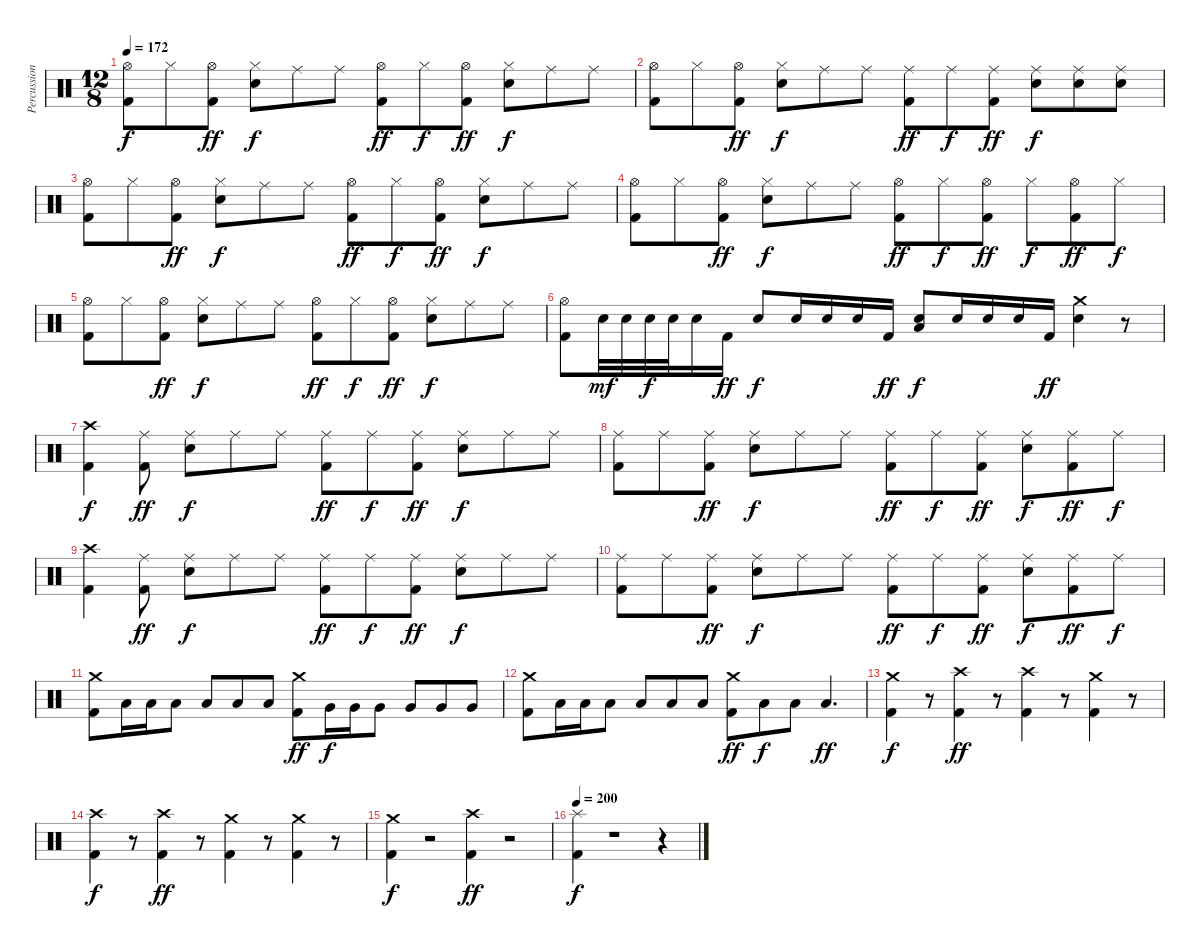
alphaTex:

\track ("Percussion" "Percussion") {instrument percussion}
\staff {score}
\articulation defaults
\ts (12 8)
\tempo 172
\clef neutral
\ks c
("Kick (hit) 2" "Hi-Hat (open)").8{dy f} "Hi-Hat (closed)".8 ("Kick (hit) 2" "Hi-Hat (open)").8{dy ff} ("Snare (hit) 2" "Hi-Hat (closed)").8{dy f} "Ride (middle)".8 "Ride (middle)".8 ("Kick (hit) 2" "Hi-Hat (open)").8{dy ff} "Hi-Hat (closed)".8{dy f} ("Kick (hit) 2" "Hi-Hat (open)").8{dy ff} ("Snare (hit) 2" "Hi-Hat (closed)").8{dy f} "Ride (middle)".8 "Ride (middle)".8 |
("Kick (hit) 2" "Hi-Hat (open)").8 "Hi-Hat (closed)".8 ("Kick (hit) 2" "Hi-Hat (open)").8{dy ff} ("Snare (hit) 2" "Hi-Hat (closed)").8{dy f} "Ride (middle)".8 "Ride (middle)".8 ("Kick (hit) 2" "Ride (middle)").8{dy ff} "Ride (middle)".8{dy f} ("Kick (hit) 2" "Ride (middle)").8{dy ff} ("Snare (hit) 2" "Ride (middle)").8{dy f} ("Snare (hit) 2" "Ride (middle)").8 ("Snare (hit) 2" "Ride (middle)").8 |
("Kick (hit) 2" "Hi-Hat (open)").8 "Hi-Hat (closed)".8 ("Kick (hit) 2" "Hi-Hat (open)").8{dy ff} ("Snare (hit) 2" "Hi-Hat (closed)").8{dy f} "Ride (middle)".8 "Ride (middle)".8 ("Kick (hit) 2" "Hi-Hat (open)").8{dy ff} "Hi-Hat (closed)".8{dy f} ("Kick (hit) 2" "Hi-Hat (open)").8{dy ff} ("Snare (hit) 2" "Hi-Hat (closed)").8{dy f} "Ride (middle)".8 "Ride (middle)".8 |
("Kick (hit) 2" "Hi-Hat (open)").8 "Hi-Hat (closed)".8 ("Kick (hit) 2" "Hi-Hat (open)").8{dy ff} ("Snare (hit) 2" "Hi-Hat (closed)").8{dy f} "Ride (middle)".8 "Ride (middle)".8 ("Kick (hit) 2" "Hi-Hat (open)").8{dy ff} "Hi-Hat (closed)".8{dy f} ("Kick (hit) 2" "Hi-Hat (open)").8{dy ff} "Hi-Hat (closed)".8{dy f} ("Kick (hit) 2" "Hi-Hat (open)").8{dy ff} "Hi-Hat (closed)".8{dy f} |
("Kick (hit) 2" "Hi-Hat (open)").8 "Hi-Hat (closed)".8 ("Kick (hit) 2" "Hi-Hat (open)").8{dy ff} ("Snare (hit) 2" "Hi-Hat (closed)").8{dy f} "Ride (middle)".8 "Ride (middle)".8 ("Kick (hit) 2" "Hi-Hat (open)").8{dy ff} "Hi-Hat (closed)".8{dy f} ("Kick (hit) 2" "Hi-Hat (open)").8{dy ff} ("Snare (hit) 2" "Hi-Hat (closed)").8{dy f} "Ride (middle)".8 "Ride (middle)".8 |
("Kick (hit) 2" "Hi-Hat (open)").8 "Snare (hit) 2".32{dy mf} "Snare (hit) 2".32 "Snare (hit) 2".32{dy f} "Snare (hit) 2".32 "Snare (hit) 2".16 "Kick (hit) 2".16{dy ff} "Snare (hit) 2".8{dy f} "Snare (hit) 2".16 "Snare (hit) 2".16 "Snare (hit) 2".16 "Kick (hit) 2".16{dy ff} ("Snare (hit) 2" "Low Tom (hit)").8{dy f} "Snare (hit) 2".16 "Snare (hit) 2".16 "Snare (hit) 2".16 "Kick (hit) 2".16{dy ff} ("Snare (hit) 2" "Crash medium (hit)").4 r.8 |
("Kick (hit) 2" "Crash high (hit)").4{dy f} ("Kick (hit) 2" "Ride (middle)").8{dy ff} ("Snare (hit) 2" "Ride (middle)").8{dy f} "Ride (middle)".8 "Ride (middle)".8 ("Kick (hit) 2" "Ride (middle)").8{dy ff} "Ride (middle)".8{dy f} ("Kick (hit) 2" "Ride (middle)").8{dy ff} ("Snare (hit) 2" "Ride (middle)").8{dy f} "Ride (middle)".8 "Ride (middle)".8 |
("Kick (hit) 2" "Ride (middle)").8 "Ride (middle)".8 ("Kick (hit) 2" "Ride (middle)").8{dy ff} ("Snare (hit) 2" "Ride (middle)").8{dy f} "Ride (middle)".8 "Ride (middle)".8 ("Kick (hit) 2" "Ride (middle)").8{dy ff} "Ride (middle)".8{dy f} ("Kick (hit) 2" "Ride (middle)").8{dy ff} ("Snare (hit) 2" "Ride (middle)").8{dy f} ("Kick (hit) 2" "Ride (middle)").8{dy ff} "Ride (middle)".8{dy f} |
("Kick (hit) 2" "Crash high (hit)").4 ("Kick (hit) 2" "Ride (middle)").8{dy ff} ("Snare (hit) 2" "Ride (middle)").8{dy f} "Ride (middle)".8 "Ride (middle)".8 ("Kick (hit) 2" "Ride (middle)").8{dy ff} "Ride (middle)".8{dy f} ("Kick (hit) 2" "Ride (middle)").8{dy ff} ("Snare (hit) 2" "Ride (middle)").8{dy f} "Ride (middle)".8 "Ride (middle)".8 |
("Kick (hit) 2" "Ride (middle)").8 "Ride (middle)".8 ("Kick (hit) 2" "Ride (middle)").8{dy ff} ("Snare (hit) 2" "Ride (middle)").8{dy f} "Ride (middle)".8 "Ride (middle)".8 ("Kick (hit) 2" "Ride (middle)").8{dy ff} "Ride (middle)".8{dy f} ("Kick (hit) 2" "Ride (middle)").8{dy ff} ("Snare (hit) 2" "Ride (middle)").8{dy f} ("Kick (hit) 2" "Ride (middle)").8{dy ff} "Ride (middle)".8{dy f} |
("Kick (hit) 2" "Crash medium (hit)").8 "Low Tom (hit)".16 "Low Tom (hit)".16 "Low Tom (hit)".8 "Low Tom (hit)".8 "Low Tom (hit)".8 "Low Tom (hit)".8 ("Kick (hit) 2" "Crash medium (hit)").8{dy ff} "Very Low Tom (hit)".16{dy f} "Very Low Tom (hit)".16 "Very Low Tom (hit)".8 "Very Low Tom (hit)".8 "Very Low Tom (hit)".8 "Very Low Tom (hit)".8 |
("Kick (hit) 2" "Crash medium (hit)").8 "Low Floor Tom (hit)".16 "Low Floor Tom (hit)".16 "Low Floor Tom (hit)".8 "Low Floor Tom (hit)".8 "Low Floor Tom (hit)".8 "Low Floor Tom (hit)".8 ("Kick (hit) 2" "Crash medium (hit)").8{dy ff} "Low Floor Tom (hit)".8{dy f} "Low Floor Tom (hit)".8 "Low Floor Tom (hit)".4{d dy ff} |
("Kick (hit) 2" "Crash medium (hit)").4{dy f} r.8 ("Kick (hit) 2" "Crash high (hit)").4{dy ff} r.8 ("Kick (hit) 2" "Crash high (hit)").4 r.8 ("Kick (hit) 2" "Crash medium (hit)").4 r.8 |
("Kick (hit) 2" "Crash high (hit)").4{dy f} r.8 ("Kick (hit) 2" "Crash high (hit)").4{dy ff} r.8 ("Kick (hit) 2" "Crash medium (hit)").4 r.8 ("Kick (hit) 2" "Crash medium (hit)").4 r.8 |
("Kick (hit) 2" "Crash medium (hit)").4{dy f} r.2 ("Kick (hit) 2" "Crash high (hit)").4{dy ff} r.2 |
\tempo 200
("Kick (hit) 2" "Splash (hit)").4{dy f} r.1 r.4
